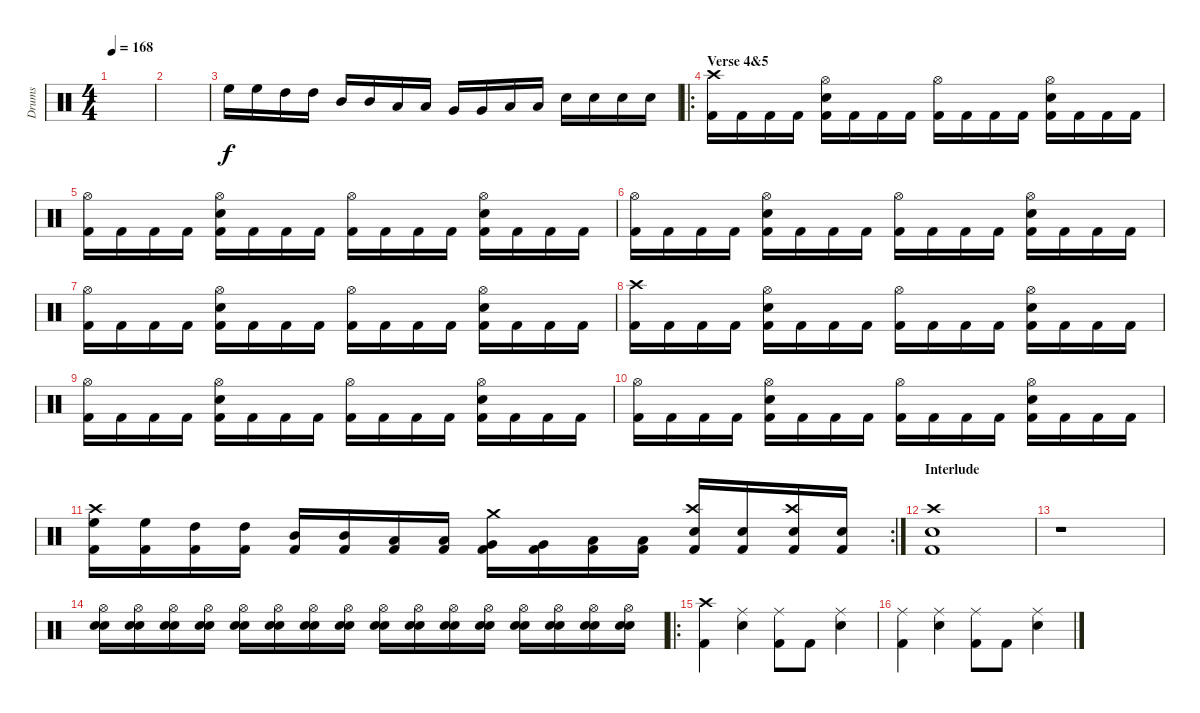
\track ("Drums" "Drums") {instrument percussion}
\staff {score}
\articulation defaults
\ts (4 4)
\tempo 168
\clef neutral
\ks c
|
|
"High Floor Tom (hit)".16 "High Floor Tom (hit)".16 "High Tom (hit)".16 "High Tom (hit)".16 "Mid Tom (hit)".16 "Mid Tom (hit)".16 "Low Tom (hit)".16 "Low Tom (hit)".16 "Very Low Tom (hit)".16 "Very Low Tom (hit)".16 "Low Floor Tom (hit)".16 "Low Floor Tom (hit)".16 "Electric Snare (hit)".16 "Electric Snare (hit)".16 "Electric Snare (hit)".16 "Electric Snare (hit)".16 |
\ro
\section ("" "Verse 4&5")
("Crash high (hit)" "Kick (hit) 2").16 "Kick (hit) 2".16 "Kick (hit) 2".16 "Kick (hit) 2".16 ("Hi-Hat (open)" "Electric Snare (hit)" "Kick (hit) 2").16 "Kick (hit) 2".16 "Kick (hit) 2".16 "Kick (hit) 2".16 ("Hi-Hat (open)" "Kick (hit) 2").16 "Kick (hit) 2".16 "Kick (hit) 2".16 "Kick (hit) 2".16 ("Hi-Hat (open)" "Electric Snare (hit)" "Kick (hit) 2").16 "Kick (hit) 2".16 "Kick (hit) 2".16 "Kick (hit) 2".16 |
("Hi-Hat (open)" "Kick (hit) 2").16 "Kick (hit) 2".16 "Kick (hit) 2".16 "Kick (hit) 2".16 ("Hi-Hat (open)" "Electric Snare (hit)" "Kick (hit) 2").16 "Kick (hit) 2".16 "Kick (hit) 2".16 "Kick (hit) 2".16 ("Hi-Hat (open)" "Kick (hit) 2").16 "Kick (hit) 2".16 "Kick (hit) 2".16 "Kick (hit) 2".16 ("Hi-Hat (open)" "Electric Snare (hit)" "Kick (hit) 2").16 "Kick (hit) 2".16 "Kick (hit) 2".16 "Kick (hit) 2".16 |
("Hi-Hat (open)" "Kick (hit) 2").16 "Kick (hit) 2".16 "Kick (hit) 2".16 "Kick (hit) 2".16 ("Hi-Hat (open)" "Electric Snare (hit)" "Kick (hit) 2").16 "Kick (hit) 2".16 "Kick (hit) 2".16 "Kick (hit) 2".16 ("Hi-Hat (open)" "Kick (hit) 2").16 "Kick (hit) 2".16 "Kick (hit) 2".16 "Kick (hit) 2".16 ("Hi-Hat (open)" "Electric Snare (hit)" "Kick (hit) 2").16 "Kick (hit) 2".16 "Kick (hit) 2".16 "Kick (hit) 2".16 |
("Hi-Hat (open)" "Kick (hit) 2").16 "Kick (hit) 2".16 "Kick (hit) 2".16 "Kick (hit) 2".16 ("Hi-Hat (open)" "Electric Snare (hit)" "Kick (hit) 2").16 "Kick (hit) 2".16 "Kick (hit) 2".16 "Kick (hit) 2".16 ("Hi-Hat (open)" "Kick (hit) 2").16 "Kick (hit) 2".16 "Kick (hit) 2".16 "Kick (hit) 2".16 ("Hi-Hat (open)" "Electric Snare (hit)" "Kick (hit) 2").16 "Kick (hit) 2".16 "Kick (hit) 2".16 "Kick (hit) 2".16 |
("Crash high (hit)" "Kick (hit) 2").16 "Kick (hit) 2".16 "Kick (hit) 2".16 "Kick (hit) 2".16 ("Hi-Hat (open)" "Electric Snare (hit)" "Kick (hit) 2").16 "Kick (hit) 2".16 "Kick (hit) 2".16 "Kick (hit) 2".16 ("Hi-Hat (open)" "Kick (hit) 2").16 "Kick (hit) 2".16 "Kick (hit) 2".16 "Kick (hit) 2".16 ("Hi-Hat (open)" "Electric Snare (hit)" "Kick (hit) 2").16 "Kick (hit) 2".16 "Kick (hit) 2".16 "Kick (hit) 2".16 |
("Hi-Hat (open)" "Kick (hit) 2").16 "Kick (hit) 2".16 "Kick (hit) 2".16 "Kick (hit) 2".16 ("Hi-Hat (open)" "Electric Snare (hit)" "Kick (hit) 2").16 "Kick (hit) 2".16 "Kick (hit) 2".16 "Kick (hit) 2".16 ("Hi-Hat (open)" "Kick (hit) 2").16 "Kick (hit) 2".16 "Kick (hit) 2".16 "Kick (hit) 2".16 ("Hi-Hat (open)" "Electric Snare (hit)" "Kick (hit) 2").16 "Kick (hit) 2".16 "Kick (hit) 2".16 "Kick (hit) 2".16 |
("Hi-Hat (open)" "Kick (hit) 2").16 "Kick (hit) 2".16 "Kick (hit) 2".16 "Kick (hit) 2".16 ("Hi-Hat (open)" "Electric Snare (hit)" "Kick (hit) 2").16 "Kick (hit) 2".16 "Kick (hit) 2".16 "Kick (hit) 2".16 ("Hi-Hat (open)" "Kick (hit) 2").16 "Kick (hit) 2".16 "Kick (hit) 2".16 "Kick (hit) 2".16 ("Hi-Hat (open)" "Electric Snare (hit)" "Kick (hit) 2").16 "Kick (hit) 2".16 "Kick (hit) 2".16 "Kick (hit) 2".16 |
\rc 2
("Crash high (hit)" "High Floor Tom (hit)" "Kick (hit) 2").16 ("High Floor Tom (hit)" "Kick (hit) 2").16 ("High Tom (hit)" "Kick (hit) 2").16 ("High Tom (hit)" "Kick (hit) 2").16 ("Mid Tom (hit)" "Kick (hit) 2").16 ("Mid Tom (hit)" "Kick (hit) 2").16 ("Low Tom (hit)" "Kick (hit) 2").16 ("Low Tom (hit)" "Kick (hit) 2").16 ("Crash medium (hit)" "Very Low Tom (hit)" "Kick (hit) 2").16 ("Very Low Tom (hit)" "Kick (hit) 2").16 ("Low Floor Tom (hit)" "Kick (hit) 2").16 ("Low Floor Tom (hit)" "Kick (hit) 2").16 ("Crash high (hit)" "Electric Snare (hit)" "Kick (hit) 2").16 ("Electric Snare (hit)" "Kick (hit) 2").16 ("Crash high (hit)" "Electric Snare (hit)" "Kick (hit) 2").16 ("Electric Snare (hit)" "Kick (hit) 2").16 |
\section ("" "Interlude")
("Crash high (hit)" "Electric Snare (hit)" "Kick (hit) 2").1 |
r.1{volume 0} |
("Hi-Hat (open)" "Snare (hit) 2" "Electric Snare (hit)").16{volume 16} ("Hi-Hat (open)" "Snare (hit) 2" "Electric Snare (hit)").16 ("Hi-Hat (open)" "Snare (hit) 2" "Electric Snare (hit)").16 ("Hi-Hat (open)" "Snare (hit) 2" "Electric Snare (hit)").16 ("Hi-Hat (open)" "Snare (hit) 2" "Electric Snare (hit)").16 ("Hi-Hat (open)" "Snare (hit) 2" "Electric Snare (hit)").16 ("Hi-Hat (open)" "Snare (hit) 2" "Electric Snare (hit)").16 ("Hi-Hat (open)" "Snare (hit) 2" "Electric Snare (hit)").16 ("Hi-Hat (open)" "Snare (hit) 2" "Electric Snare (hit)").16 ("Hi-Hat (open)" "Snare (hit) 2" "Electric Snare (hit)").16 ("Hi-Hat (open)" "Snare (hit) 2" "Electric Snare (hit)").16 ("Hi-Hat (open)" "Snare (hit) 2" "Electric Snare (hit)").16 ("Hi-Hat (open)" "Snare (hit) 2" "Electric Snare (hit)").16 ("Hi-Hat (open)" "Snare (hit) 2" "Electric Snare (hit)").16 ("Hi-Hat (open)" "Snare (hit) 2" "Electric Snare (hit)").16 ("Hi-Hat (open)" "Snare (hit) 2" "Electric Snare (hit)").16 |
\ro
("Crash high (hit)" "Kick (hit) 2").4 ("Ride (middle)" "Electric Snare (hit)").4 ("Ride (middle)" "Kick (hit) 2").8 "Kick (hit) 2".8 ("Ride (middle)" "Electric Snare (hit)").4 |
("Ride (middle)" "Kick (hit) 2").4 ("Ride (middle)" "Electric Snare (hit)").4 ("Ride (middle)" "Kick (hit) 2").8 "Kick (hit) 2".8 ("Ride (middle)" "Electric Snare (hit)").4
